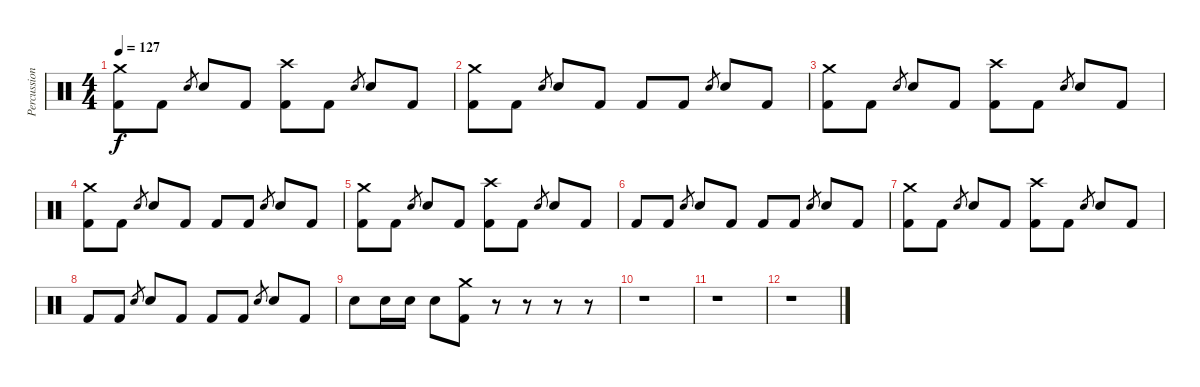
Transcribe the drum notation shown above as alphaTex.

\track ("Percussion" "Percussion") {instrument percussion}
\staff {score}
\articulation defaults
\ts (4 4)
\tempo 127
\clef neutral
\ks c
("Crash medium (hit)" "Kick (hit) 2").8{dy f} "Kick (hit) 2".8 "Electric Snare (hit)".8{gr} "Electric Snare (hit)".8 "Kick (hit) 2".8 ("Crash high (hit)" "Kick (hit) 2").8 "Kick (hit) 2".8 "Electric Snare (hit)".8{gr} "Electric Snare (hit)".8 "Kick (hit) 2".8 |
("Crash medium (hit)" "Kick (hit) 2").8 "Kick (hit) 2".8 "Electric Snare (hit)".8{gr} "Electric Snare (hit)".8 "Kick (hit) 2".8 "Kick (hit) 2".8 "Kick (hit) 2".8 "Electric Snare (hit)".8{gr} "Electric Snare (hit)".8 "Kick (hit) 2".8 |
("Crash medium (hit)" "Kick (hit) 2").8 "Kick (hit) 2".8 "Electric Snare (hit)".8{gr} "Electric Snare (hit)".8 "Kick (hit) 2".8 ("Crash high (hit)" "Kick (hit) 2").8 "Kick (hit) 2".8 "Electric Snare (hit)".8{gr} "Electric Snare (hit)".8 "Kick (hit) 2".8 |
("Crash medium (hit)" "Kick (hit) 2").8 "Kick (hit) 2".8 "Electric Snare (hit)".8{gr} "Electric Snare (hit)".8 "Kick (hit) 2".8 "Kick (hit) 2".8 "Kick (hit) 2".8 "Electric Snare (hit)".8{gr} "Electric Snare (hit)".8 "Kick (hit) 2".8 |
("Crash medium (hit)" "Kick (hit) 2").8 "Kick (hit) 2".8 "Electric Snare (hit)".8{gr} "Electric Snare (hit)".8 "Kick (hit) 2".8 ("Crash high (hit)" "Kick (hit) 2").8 "Kick (hit) 2".8 "Electric Snare (hit)".8{gr} "Electric Snare (hit)".8 "Kick (hit) 2".8 |
"Kick (hit) 2".8 "Kick (hit) 2".8 "Electric Snare (hit)".8{gr} "Electric Snare (hit)".8 "Kick (hit) 2".8 "Kick (hit) 2".8 "Kick (hit) 2".8 "Electric Snare (hit)".8{gr} "Electric Snare (hit)".8 "Kick (hit) 2".8 |
("Crash medium (hit)" "Kick (hit) 2").8 "Kick (hit) 2".8 "Electric Snare (hit)".8{gr} "Electric Snare (hit)".8 "Kick (hit) 2".8 ("Crash high (hit)" "Kick (hit) 2").8 "Kick (hit) 2".8 "Electric Snare (hit)".8{gr} "Electric Snare (hit)".8 "Kick (hit) 2".8 |
"Kick (hit) 2".8 "Kick (hit) 2".8 "Electric Snare (hit)".8{gr} "Electric Snare (hit)".8 "Kick (hit) 2".8 "Kick (hit) 2".8 "Kick (hit) 2".8 "Electric Snare (hit)".8{gr} "Electric Snare (hit)".8 "Kick (hit) 2".8 |
"Electric Snare (hit)".8 "Electric Snare (hit)".16 "Electric Snare (hit)".16 "Electric Snare (hit)".8 ("Crash medium (hit)" "Kick (hit) 2").8 r.8 r.8 r.8 r.8 |
r.1 |
r.1 |
r.1
